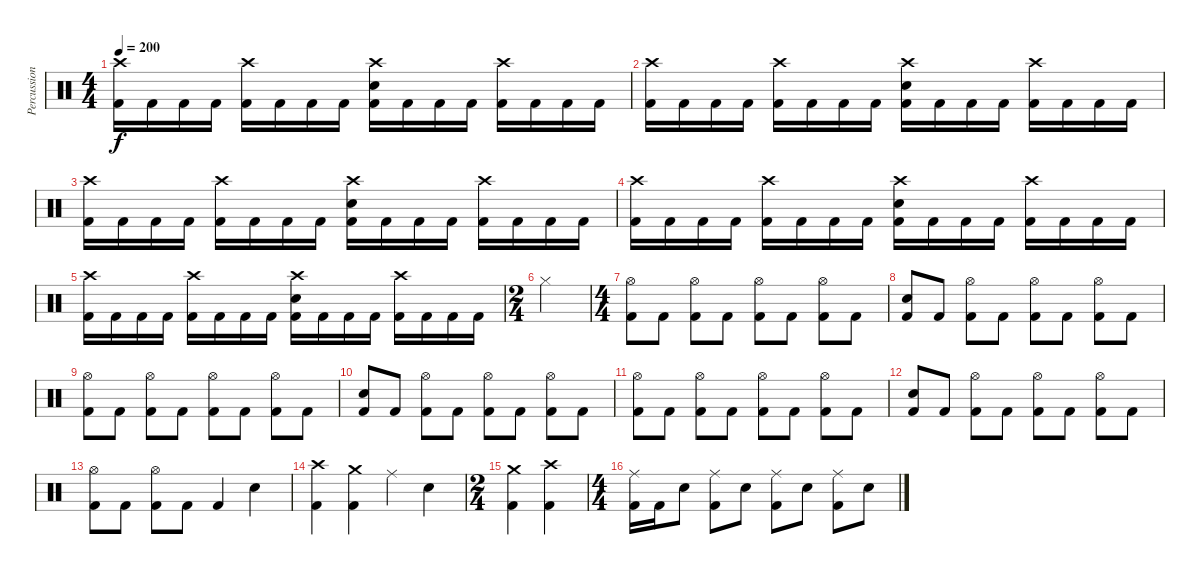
\track ("Percussion" "Percussion") {instrument percussion}
\staff {score}
\articulation defaults
\ts (4 4)
\tempo 200
\clef neutral
\ks c
("Crash high (hit)" "Kick (hit) 2").16{dy f} "Kick (hit) 2".16 "Kick (hit) 2".16 "Kick (hit) 2".16 ("Crash high (hit)" "Kick (hit) 2").16 "Kick (hit) 2".16 "Kick (hit) 2".16 "Kick (hit) 2".16 ("Crash high (hit)" "Kick (hit) 2" "Snare (hit) 2").16 "Kick (hit) 2".16 "Kick (hit) 2".16 "Kick (hit) 2".16 ("Crash high (hit)" "Kick (hit) 2").16 "Kick (hit) 2".16 "Kick (hit) 2".16 "Kick (hit) 2".16 |
("Crash high (hit)" "Kick (hit) 2").16 "Kick (hit) 2".16 "Kick (hit) 2".16 "Kick (hit) 2".16 ("Crash high (hit)" "Kick (hit) 2").16 "Kick (hit) 2".16 "Kick (hit) 2".16 "Kick (hit) 2".16 ("Crash high (hit)" "Kick (hit) 2" "Snare (hit) 2").16 "Kick (hit) 2".16 "Kick (hit) 2".16 "Kick (hit) 2".16 ("Crash high (hit)" "Kick (hit) 2").16 "Kick (hit) 2".16 "Kick (hit) 2".16 "Kick (hit) 2".16 |
("Crash high (hit)" "Kick (hit) 2").16 "Kick (hit) 2".16 "Kick (hit) 2".16 "Kick (hit) 2".16 ("Crash high (hit)" "Kick (hit) 2").16 "Kick (hit) 2".16 "Kick (hit) 2".16 "Kick (hit) 2".16 ("Crash high (hit)" "Kick (hit) 2" "Snare (hit) 2").16 "Kick (hit) 2".16 "Kick (hit) 2".16 "Kick (hit) 2".16 ("Crash high (hit)" "Kick (hit) 2").16 "Kick (hit) 2".16 "Kick (hit) 2".16 "Kick (hit) 2".16 |
("Crash high (hit)" "Kick (hit) 2").16 "Kick (hit) 2".16 "Kick (hit) 2".16 "Kick (hit) 2".16 ("Crash high (hit)" "Kick (hit) 2").16 "Kick (hit) 2".16 "Kick (hit) 2".16 "Kick (hit) 2".16 ("Crash high (hit)" "Kick (hit) 2" "Snare (hit) 2").16 "Kick (hit) 2".16 "Kick (hit) 2".16 "Kick (hit) 2".16 ("Crash high (hit)" "Kick (hit) 2").16 "Kick (hit) 2".16 "Kick (hit) 2".16 "Kick (hit) 2".16 |
("Crash high (hit)" "Kick (hit) 2").16 "Kick (hit) 2".16 "Kick (hit) 2".16 "Kick (hit) 2".16 ("Crash high (hit)" "Kick (hit) 2").16 "Kick (hit) 2".16 "Kick (hit) 2".16 "Kick (hit) 2".16 ("Crash high (hit)" "Kick (hit) 2" "Snare (hit) 2").16 "Kick (hit) 2".16 "Kick (hit) 2".16 "Kick (hit) 2".16 ("Crash high (hit)" "Kick (hit) 2").16 "Kick (hit) 2".16 "Kick (hit) 2".16 "Kick (hit) 2".16 |
\ts (2 4)
"Hi-Hat (closed)".2 |
\ts (4 4)
("Kick (hit) 2" "Hi-Hat (open)").8 "Kick (hit) 2".8 ("Kick (hit) 2" "Hi-Hat (open)").8 "Kick (hit) 2".8 ("Kick (hit) 2" "Hi-Hat (open)").8 "Kick (hit) 2".8 ("Kick (hit) 2" "Hi-Hat (open)").8 "Kick (hit) 2".8 |
("Kick (hit) 2" "Snare (hit) 2").8 "Kick (hit) 2".8 ("Kick (hit) 2" "Hi-Hat (open)").8 "Kick (hit) 2".8 ("Kick (hit) 2" "Hi-Hat (open)").8 "Kick (hit) 2".8 ("Kick (hit) 2" "Hi-Hat (open)").8 "Kick (hit) 2".8 |
("Kick (hit) 2" "Hi-Hat (open)").8 "Kick (hit) 2".8 ("Kick (hit) 2" "Hi-Hat (open)").8 "Kick (hit) 2".8 ("Kick (hit) 2" "Hi-Hat (open)").8 "Kick (hit) 2".8 ("Kick (hit) 2" "Hi-Hat (open)").8 "Kick (hit) 2".8 |
("Kick (hit) 2" "Snare (hit) 2").8 "Kick (hit) 2".8 ("Kick (hit) 2" "Hi-Hat (open)").8 "Kick (hit) 2".8 ("Kick (hit) 2" "Hi-Hat (open)").8 "Kick (hit) 2".8 ("Kick (hit) 2" "Hi-Hat (open)").8 "Kick (hit) 2".8 |
("Kick (hit) 2" "Hi-Hat (open)").8 "Kick (hit) 2".8 ("Kick (hit) 2" "Hi-Hat (open)").8 "Kick (hit) 2".8 ("Kick (hit) 2" "Hi-Hat (open)").8 "Kick (hit) 2".8 ("Kick (hit) 2" "Hi-Hat (open)").8 "Kick (hit) 2".8 |
("Kick (hit) 2" "Snare (hit) 2").8 "Kick (hit) 2".8 ("Kick (hit) 2" "Hi-Hat (open)").8 "Kick (hit) 2".8 ("Kick (hit) 2" "Hi-Hat (open)").8 "Kick (hit) 2".8 ("Kick (hit) 2" "Hi-Hat (open)").8 "Kick (hit) 2".8 |
("Kick (hit) 2" "Hi-Hat (open)").8 "Kick (hit) 2".8 ("Kick (hit) 2" "Hi-Hat (open)").8 "Kick (hit) 2".8 "Kick (hit) 2".4 "Snare (hit) 2".4 |
("Kick (hit) 2" "Crash high (hit)").4 ("Kick (hit) 2" "Crash medium (hit)").4 "Ride (middle)".4 "Snare (hit) 2".4 |
\ts (2 4)
("Kick (hit) 2" "Crash medium (hit)").4 ("Kick (hit) 2" "Crash high (hit)").4 |
\ts (4 4)
("Ride (middle)" "Kick (hit) 2").16 "Kick (hit) 2".16 "Snare (hit) 2".8 ("Ride (middle)" "Kick (hit) 2").8 "Snare (hit) 2".8 ("Ride (middle)" "Kick (hit) 2").8 "Snare (hit) 2".8 ("Ride (middle)" "Kick (hit) 2").8 "Snare (hit) 2".8
